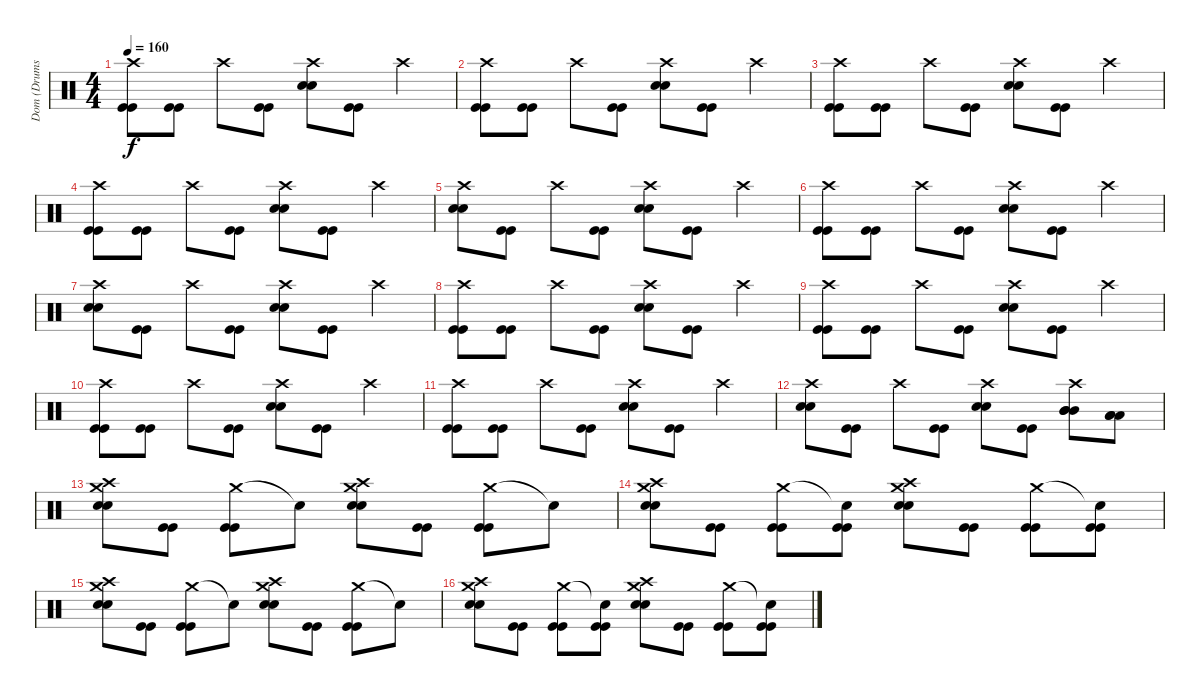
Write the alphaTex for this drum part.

\track ("Dom (Drums)" "Dom (Drums") {instrument percussion}
\staff {score}
\articulation defaults
\ts (4 4)
\tempo 160
\clef neutral
\ks c
("Crash high (hit)" "Kick (hit)" "Kick (hit)").8{dy f} ("Kick (hit)" "Kick (hit)").8 "Crash high (hit)".8 ("Kick (hit)" "Kick (hit)").8 ("Crash high (hit)" "Snare (hit) 2" "Snare (hit) 2").8 ("Kick (hit)" "Kick (hit)").8 "Crash high (hit)".4 |
("Crash high (hit)" "Kick (hit)" "Kick (hit)").8 ("Kick (hit)" "Kick (hit)").8 "Crash high (hit)".8 ("Kick (hit)" "Kick (hit)").8 ("Crash high (hit)" "Snare (hit) 2" "Snare (hit) 2").8 ("Kick (hit)" "Kick (hit)").8 "Crash high (hit)".4 |
("Crash high (hit)" "Kick (hit)" "Kick (hit)").8 ("Kick (hit)" "Kick (hit)").8 "Crash high (hit)".8 ("Kick (hit)" "Kick (hit)").8 ("Crash high (hit)" "Snare (hit) 2" "Snare (hit) 2").8 ("Kick (hit)" "Kick (hit)").8 "Crash high (hit)".4 |
("Crash high (hit)" "Kick (hit)" "Kick (hit)").8 ("Kick (hit)" "Kick (hit)").8 "Crash high (hit)".8 ("Kick (hit)" "Kick (hit)").8 ("Crash high (hit)" "Snare (hit) 2" "Snare (hit) 2").8 ("Kick (hit)" "Kick (hit)").8 "Crash high (hit)".4 |
("Crash high (hit)" "Snare (hit) 2" "Snare (hit) 2").8 ("Kick (hit)" "Kick (hit)").8 "Crash high (hit)".8 ("Kick (hit)" "Kick (hit)").8 ("Crash high (hit)" "Snare (hit) 2" "Snare (hit) 2").8 ("Kick (hit)" "Kick (hit)").8 "Crash high (hit)".4 |
("Crash high (hit)" "Kick (hit)" "Kick (hit)").8 ("Kick (hit)" "Kick (hit)").8 "Crash high (hit)".8 ("Kick (hit)" "Kick (hit)").8 ("Crash high (hit)" "Snare (hit) 2" "Snare (hit) 2").8 ("Kick (hit)" "Kick (hit)").8 "Crash high (hit)".4 |
("Crash high (hit)" "Snare (hit) 2" "Snare (hit) 2").8 ("Kick (hit)" "Kick (hit)").8 "Crash high (hit)".8 ("Kick (hit)" "Kick (hit)").8 ("Crash high (hit)" "Snare (hit) 2" "Snare (hit) 2").8 ("Kick (hit)" "Kick (hit)").8 "Crash high (hit)".4 |
("Crash high (hit)" "Kick (hit)" "Kick (hit)").8 ("Kick (hit)" "Kick (hit)").8 "Crash high (hit)".8 ("Kick (hit)" "Kick (hit)").8 ("Crash high (hit)" "Snare (hit) 2" "Snare (hit) 2").8 ("Kick (hit)" "Kick (hit)").8 "Crash high (hit)".4 |
("Crash high (hit)" "Kick (hit)" "Kick (hit)").8 ("Kick (hit)" "Kick (hit)").8 "Crash high (hit)".8 ("Kick (hit)" "Kick (hit)").8 ("Crash high (hit)" "Snare (hit) 2" "Snare (hit) 2").8 ("Kick (hit)" "Kick (hit)").8 "Crash high (hit)".4 |
("Crash high (hit)" "Kick (hit)" "Kick (hit)").8 ("Kick (hit)" "Kick (hit)").8 "Crash high (hit)".8 ("Kick (hit)" "Kick (hit)").8 ("Crash high (hit)" "Snare (hit) 2" "Snare (hit) 2").8 ("Kick (hit)" "Kick (hit)").8 "Crash high (hit)".4 |
("Crash high (hit)" "Kick (hit)" "Kick (hit)").8 ("Kick (hit)" "Kick (hit)").8 "Crash high (hit)".8 ("Kick (hit)" "Kick (hit)").8 ("Crash high (hit)" "Snare (hit) 2" "Snare (hit) 2").8 ("Kick (hit)" "Kick (hit)").8 "Crash high (hit)".4 |
("Crash high (hit)" "Snare (hit) 2" "Snare (hit) 2").8 ("Kick (hit)" "Kick (hit)").8 "Crash high (hit)".8 ("Kick (hit)" "Kick (hit)").8 ("Crash high (hit)" "Snare (hit) 2" "Snare (hit) 2").8 ("Kick (hit)" "Kick (hit)").8 ("Crash high (hit)" "Mid Tom (hit)" "Mid Tom (hit)" "Mid Tom (hit)").8 ("Low Tom (hit)" "Low Tom (hit)" "Low Tom (hit)").8 |
("Crash medium (hit)" "Crash high (hit)" "Snare (hit) 2" "Snare (hit) 2").8 ("Kick (hit)" "Kick (hit)").8 ("Crash medium (hit)" "Kick (hit)" "Kick (hit)").8 "Snare (hit)"{t}.8 ("Crash medium (hit)" "Crash high (hit)" "Snare (hit) 2" "Snare (hit) 2").8 ("Kick (hit)" "Kick (hit)").8 ("Crash medium (hit)" "Kick (hit)" "Kick (hit)").8 "Snare (hit)"{t}.8 |
("Crash medium (hit)" "Crash high (hit)" "Snare (hit) 2" "Snare (hit) 2").8 ("Kick (hit)" "Kick (hit)").8 ("Crash medium (hit)" "Kick (hit)" "Kick (hit)").8 ("Snare (hit)"{t} "Kick (hit)" "Kick (hit)").8 ("Crash medium (hit)" "Crash high (hit)" "Snare (hit) 2" "Snare (hit) 2").8 ("Kick (hit)" "Kick (hit)").8 ("Crash medium (hit)" "Kick (hit)" "Kick (hit)").8 ("Snare (hit)"{t} "Kick (hit)" "Kick (hit)").8 |
("Crash medium (hit)" "Crash high (hit)" "Snare (hit) 2" "Snare (hit) 2").8 ("Kick (hit)" "Kick (hit)").8 ("Crash medium (hit)" "Kick (hit)" "Kick (hit)").8 "Snare (hit)"{t}.8 ("Crash medium (hit)" "Crash high (hit)" "Snare (hit) 2" "Snare (hit) 2").8 ("Kick (hit)" "Kick (hit)").8 ("Crash medium (hit)" "Kick (hit)" "Kick (hit)").8 "Snare (hit)"{t}.8 |
("Crash medium (hit)" "Crash high (hit)" "Snare (hit) 2" "Snare (hit) 2").8 ("Kick (hit)" "Kick (hit)").8 ("Crash medium (hit)" "Kick (hit)" "Kick (hit)").8 ("Snare (hit)"{t} "Kick (hit)" "Kick (hit)").8 ("Crash medium (hit)" "Crash high (hit)" "Snare (hit) 2" "Snare (hit) 2").8 ("Kick (hit)" "Kick (hit)").8 ("Crash medium (hit)" "Kick (hit)" "Kick (hit)").8 ("Snare (hit)"{t} "Kick (hit)" "Kick (hit)").8
